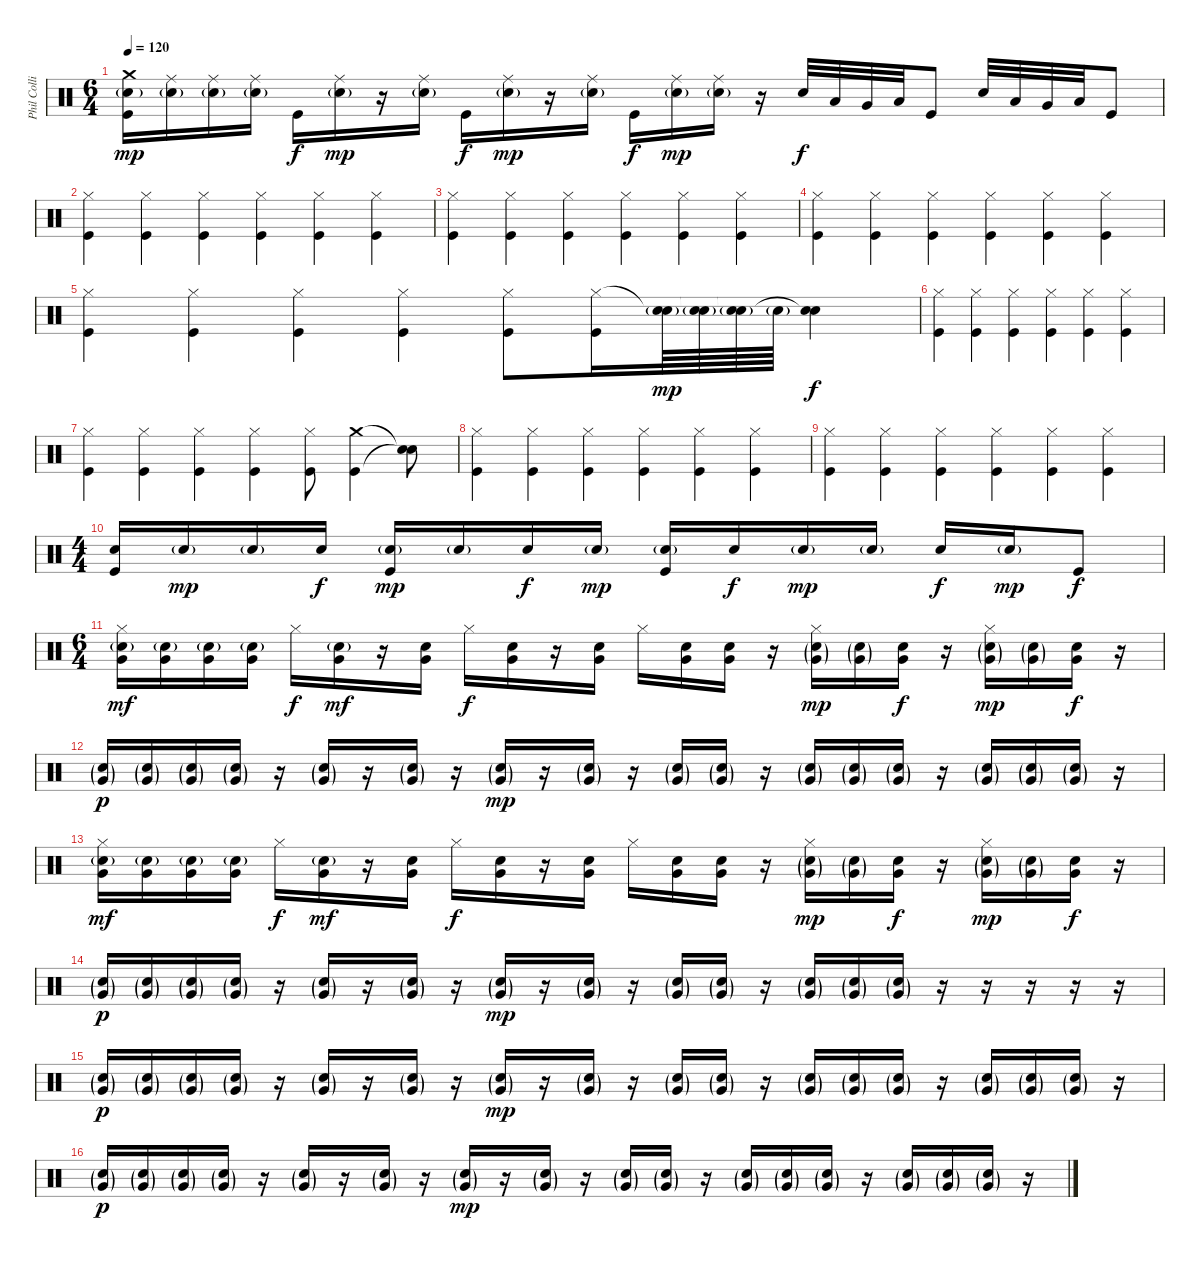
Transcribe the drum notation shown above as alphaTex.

\track ("Phil Collins" "Phil Colli") {instrument percussion}
\staff
\articulation defaults
\ts (6 4)
\tempo 120
\clef neutral
\ks c
("Electric Snare (hit)"{g} "Crash medium (hit)" "Kick (hit)").16{dy mp} ("Electric Snare (hit)"{g} "Ride (middle)").16 ("Electric Snare (hit)"{g} "Ride (middle)").16 ("Electric Snare (hit)"{g} "Ride (middle)").16 "Kick (hit)".16{dy f} ("Electric Snare (hit)"{g} "Ride (middle)").16{dy mp} r.16 ("Electric Snare (hit)"{g} "Ride (middle)").16 "Kick (hit)".16{dy f} ("Electric Snare (hit)"{g} "Ride (middle)").16{dy mp} r.16 ("Electric Snare (hit)"{g} "Ride (middle)").16 "Kick (hit)".16{dy f} ("Electric Snare (hit)"{g} "Ride (middle)").16{dy mp} ("Electric Snare (hit)"{g} "Ride (middle)").16 r.16 "Electric Snare (hit)".32{dy f} "Low Tom (hit)".32 "Very Low Tom (hit)".32 "Low Floor Tom (hit)".32 "Kick (hit)".8 "Electric Snare (hit)".32 "Low Tom (hit)".32 "Very Low Tom (hit)".32 "Low Floor Tom (hit)".32 "Kick (hit)".8 |
("Hi-Hat (closed)" "Kick (hit)").4 ("Hi-Hat (closed)" "Kick (hit)").4 ("Hi-Hat (closed)" "Kick (hit)").4 ("Hi-Hat (closed)" "Kick (hit)").4 ("Hi-Hat (closed)" "Kick (hit)").4 ("Hi-Hat (closed)" "Kick (hit)").4 |
("Hi-Hat (closed)" "Kick (hit)").4 ("Hi-Hat (closed)" "Kick (hit)").4 ("Hi-Hat (closed)" "Kick (hit)").4 ("Hi-Hat (closed)" "Kick (hit)").4 ("Hi-Hat (closed)" "Kick (hit)").4 ("Hi-Hat (closed)" "Kick (hit)").4 |
("Hi-Hat (closed)" "Kick (hit)").4 ("Hi-Hat (closed)" "Kick (hit)").4 ("Hi-Hat (closed)" "Kick (hit)").4 ("Hi-Hat (closed)" "Kick (hit)").4 ("Hi-Hat (closed)" "Kick (hit)").4 ("Hi-Hat (closed)" "Kick (hit)").4 |
("Hi-Hat (closed)" "Kick (hit)").4 ("Hi-Hat (closed)" "Kick (hit)").4 ("Hi-Hat (closed)" "Kick (hit)").4 ("Hi-Hat (closed)" "Kick (hit)").4 ("Hi-Hat (closed)" "Kick (hit)").8 ("Kick (hit)" "Hi-Hat (closed)").16 ("Electric Snare (hit)"{g} "Snare (hit)"{t}).64{dy mp} ("Electric Snare (hit)"{g} "Snare (hit)"{t}).64 ("Electric Snare (hit)"{g} "Snare (hit)"{t}).64 "Electric Snare (hit)"{g}.64 ("Electric Snare (hit)" "Snare (hit)"{t}).4{dy f} |
("Hi-Hat (closed)" "Kick (hit)").4 ("Hi-Hat (closed)" "Kick (hit)").4 ("Hi-Hat (closed)" "Kick (hit)").4 ("Hi-Hat (closed)" "Kick (hit)").4 ("Hi-Hat (closed)" "Kick (hit)").4 ("Hi-Hat (closed)" "Kick (hit)").4 |
("Hi-Hat (closed)" "Kick (hit)").4 ("Hi-Hat (closed)" "Kick (hit)").4 ("Hi-Hat (closed)" "Kick (hit)").4 ("Hi-Hat (closed)" "Kick (hit)").4 ("Hi-Hat (closed)" "Kick (hit)").8 ("Kick (hit)" "Crash medium (hit)").4 ("Snare (hit)"{t} "Snare (hit)"{t}).8 |
("Hi-Hat (closed)" "Kick (hit)").4 ("Hi-Hat (closed)" "Kick (hit)").4 ("Hi-Hat (closed)" "Kick (hit)").4 ("Hi-Hat (closed)" "Kick (hit)").4 ("Hi-Hat (closed)" "Kick (hit)").4 ("Hi-Hat (closed)" "Kick (hit)").4 |
("Hi-Hat (closed)" "Kick (hit)").4 ("Hi-Hat (closed)" "Kick (hit)").4 ("Hi-Hat (closed)" "Kick (hit)").4 ("Hi-Hat (closed)" "Kick (hit)").4 ("Hi-Hat (closed)" "Kick (hit)").4 ("Hi-Hat (closed)" "Kick (hit)").4 |
\ts (4 4)
("Electric Snare (hit)" "Kick (hit)").16 "Electric Snare (hit)"{g}.16{dy mp} "Electric Snare (hit)"{g}.16 "Electric Snare (hit)".16{dy f} ("Electric Snare (hit)"{g} "Kick (hit)").16{dy mp} "Electric Snare (hit)"{g}.16 "Electric Snare (hit)".16{dy f} "Electric Snare (hit)"{g}.16{dy mp} ("Electric Snare (hit)"{g} "Kick (hit)").16 "Electric Snare (hit)".16{dy f} "Electric Snare (hit)"{g}.16{dy mp} "Electric Snare (hit)"{g}.16 "Electric Snare (hit)".16{dy f} "Electric Snare (hit)"{g}.16{dy mp} "Kick (hit)".8{dy f} |
\ts (6 4)
("Electric Snare (hit)"{g} "Very Low Tom (hit)" "Hi-Hat (closed)").16{dy mf} ("Electric Snare (hit)"{g} "Very Low Tom (hit)").16 ("Electric Snare (hit)"{g} "Very Low Tom (hit)").16 ("Electric Snare (hit)"{g} "Very Low Tom (hit)").16 "Hi-Hat (closed)".16{dy f} ("Electric Snare (hit)"{g} "Very Low Tom (hit)").16{dy mf} r.16 ("Electric Snare (hit)" "Very Low Tom (hit)").16 "Hi-Hat (closed)".16{dy f} ("Electric Snare (hit)" "Very Low Tom (hit)").16 r.16 ("Electric Snare (hit)" "Very Low Tom (hit)").16 "Hi-Hat (closed)".16 ("Electric Snare (hit)" "Very Low Tom (hit)").16 ("Electric Snare (hit)" "Very Low Tom (hit)").16 r.16 ("Electric Snare (hit)"{g} "Very Low Tom (hit)"{g} "Hi-Hat (closed)").16{dy mp} ("Electric Snare (hit)"{g} "Very Low Tom (hit)"{g}).16 ("Electric Snare (hit)" "Very Low Tom (hit)").16{dy f} r.16 ("Electric Snare (hit)"{g} "Very Low Tom (hit)"{g} "Hi-Hat (closed)").16{dy mp} ("Electric Snare (hit)"{g} "Very Low Tom (hit)"{g}).16 ("Electric Snare (hit)" "Very Low Tom (hit)").16{dy f} r.16 |
("Electric Snare (hit)"{g} "Very Low Tom (hit)"{g}).16{dy p} ("Electric Snare (hit)"{g} "Very Low Tom (hit)"{g}).16 ("Electric Snare (hit)"{g} "Very Low Tom (hit)"{g}).16 ("Electric Snare (hit)"{g} "Very Low Tom (hit)"{g}).16 r.16 ("Electric Snare (hit)"{g} "Very Low Tom (hit)"{g}).16 r.16 ("Electric Snare (hit)"{g} "Very Low Tom (hit)"{g}).16 r.16 ("Electric Snare (hit)"{g} "Very Low Tom (hit)"{g}).16{dy mp} r.16 ("Electric Snare (hit)"{g} "Very Low Tom (hit)"{g}).16 r.16 ("Electric Snare (hit)"{g} "Very Low Tom (hit)"{g}).16 ("Electric Snare (hit)"{g} "Very Low Tom (hit)"{g}).16 r.16 ("Electric Snare (hit)"{g} "Very Low Tom (hit)"{g}).16 ("Electric Snare (hit)"{g} "Very Low Tom (hit)"{g}).16 ("Electric Snare (hit)"{g} "Very Low Tom (hit)"{g}).16 r.16 ("Electric Snare (hit)"{g} "Very Low Tom (hit)"{g}).16 ("Electric Snare (hit)"{g} "Very Low Tom (hit)"{g}).16 ("Electric Snare (hit)"{g} "Very Low Tom (hit)"{g}).16 r.16 |
("Electric Snare (hit)"{g} "Very Low Tom (hit)" "Hi-Hat (closed)").16{dy mf} ("Electric Snare (hit)"{g} "Very Low Tom (hit)").16 ("Electric Snare (hit)"{g} "Very Low Tom (hit)").16 ("Electric Snare (hit)"{g} "Very Low Tom (hit)").16 "Hi-Hat (closed)".16{dy f} ("Electric Snare (hit)"{g} "Very Low Tom (hit)").16{dy mf} r.16 ("Electric Snare (hit)" "Very Low Tom (hit)").16 "Hi-Hat (closed)".16{dy f} ("Electric Snare (hit)" "Very Low Tom (hit)").16 r.16 ("Electric Snare (hit)" "Very Low Tom (hit)").16 "Hi-Hat (closed)".16 ("Electric Snare (hit)" "Very Low Tom (hit)").16 ("Electric Snare (hit)" "Very Low Tom (hit)").16 r.16 ("Electric Snare (hit)"{g} "Very Low Tom (hit)"{g} "Hi-Hat (closed)").16{dy mp} ("Electric Snare (hit)"{g} "Very Low Tom (hit)"{g}).16 ("Electric Snare (hit)" "Very Low Tom (hit)").16{dy f} r.16 ("Electric Snare (hit)"{g} "Very Low Tom (hit)"{g} "Hi-Hat (closed)").16{dy mp} ("Electric Snare (hit)"{g} "Very Low Tom (hit)"{g}).16 ("Electric Snare (hit)" "Very Low Tom (hit)").16{dy f} r.16 |
("Electric Snare (hit)"{g} "Very Low Tom (hit)"{g}).16{dy p} ("Electric Snare (hit)"{g} "Very Low Tom (hit)"{g}).16 ("Electric Snare (hit)"{g} "Very Low Tom (hit)"{g}).16 ("Electric Snare (hit)"{g} "Very Low Tom (hit)"{g}).16 r.16 ("Electric Snare (hit)"{g} "Very Low Tom (hit)"{g}).16 r.16 ("Electric Snare (hit)"{g} "Very Low Tom (hit)"{g}).16 r.16 ("Electric Snare (hit)"{g} "Very Low Tom (hit)"{g}).16{dy mp} r.16 ("Electric Snare (hit)"{g} "Very Low Tom (hit)"{g}).16 r.16 ("Electric Snare (hit)"{g} "Very Low Tom (hit)"{g}).16 ("Electric Snare (hit)"{g} "Very Low Tom (hit)"{g}).16 r.16 ("Electric Snare (hit)"{g} "Very Low Tom (hit)"{g}).16 ("Electric Snare (hit)"{g} "Very Low Tom (hit)"{g}).16 ("Electric Snare (hit)"{g} "Very Low Tom (hit)"{g}).16 r.16 r.16 r.16 r.16 r.16 |
("Electric Snare (hit)"{g} "Very Low Tom (hit)"{g}).16{dy p} ("Electric Snare (hit)"{g} "Very Low Tom (hit)"{g}).16 ("Electric Snare (hit)"{g} "Very Low Tom (hit)"{g}).16 ("Electric Snare (hit)"{g} "Very Low Tom (hit)"{g}).16 r.16 ("Electric Snare (hit)"{g} "Very Low Tom (hit)"{g}).16 r.16 ("Electric Snare (hit)"{g} "Very Low Tom (hit)"{g}).16 r.16 ("Electric Snare (hit)"{g} "Very Low Tom (hit)"{g}).16{dy mp} r.16 ("Electric Snare (hit)"{g} "Very Low Tom (hit)"{g}).16 r.16 ("Electric Snare (hit)"{g} "Very Low Tom (hit)"{g}).16 ("Electric Snare (hit)"{g} "Very Low Tom (hit)"{g}).16 r.16 ("Electric Snare (hit)"{g} "Very Low Tom (hit)"{g}).16 ("Electric Snare (hit)"{g} "Very Low Tom (hit)"{g}).16 ("Electric Snare (hit)"{g} "Very Low Tom (hit)"{g}).16 r.16 ("Electric Snare (hit)"{g} "Very Low Tom (hit)"{g}).16 ("Electric Snare (hit)"{g} "Very Low Tom (hit)"{g}).16 ("Electric Snare (hit)"{g} "Very Low Tom (hit)"{g}).16 r.16 |
("Electric Snare (hit)"{g} "Very Low Tom (hit)"{g}).16{dy p} ("Electric Snare (hit)"{g} "Very Low Tom (hit)"{g}).16 ("Electric Snare (hit)"{g} "Very Low Tom (hit)"{g}).16 ("Electric Snare (hit)"{g} "Very Low Tom (hit)"{g}).16 r.16 ("Electric Snare (hit)"{g} "Very Low Tom (hit)"{g}).16 r.16 ("Electric Snare (hit)"{g} "Very Low Tom (hit)"{g}).16 r.16 ("Electric Snare (hit)"{g} "Very Low Tom (hit)"{g}).16{dy mp} r.16 ("Electric Snare (hit)"{g} "Very Low Tom (hit)"{g}).16 r.16 ("Electric Snare (hit)"{g} "Very Low Tom (hit)"{g}).16 ("Electric Snare (hit)"{g} "Very Low Tom (hit)"{g}).16 r.16 ("Electric Snare (hit)"{g} "Very Low Tom (hit)"{g}).16 ("Electric Snare (hit)"{g} "Very Low Tom (hit)"{g}).16 ("Electric Snare (hit)"{g} "Very Low Tom (hit)"{g}).16 r.16 ("Electric Snare (hit)"{g} "Very Low Tom (hit)"{g}).16 ("Electric Snare (hit)"{g} "Very Low Tom (hit)"{g}).16 ("Electric Snare (hit)"{g} "Very Low Tom (hit)"{g}).16 r.16
